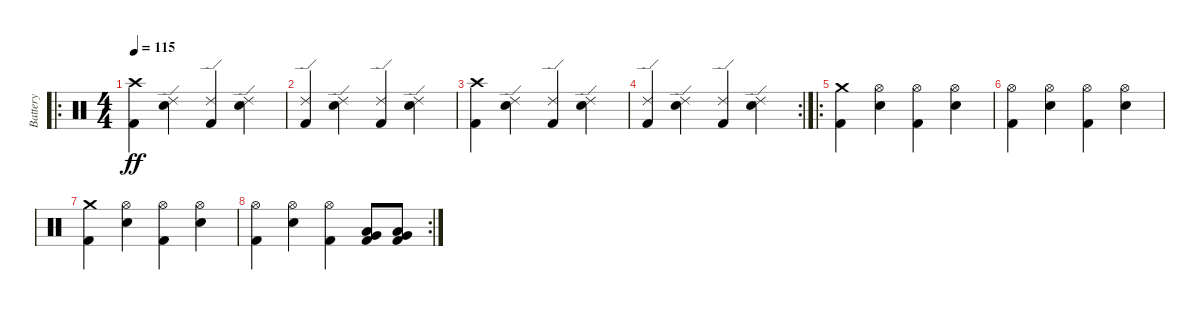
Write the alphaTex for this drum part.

\track ("Battery" "Battery") {instrument percussion}
\staff {score}
\articulation defaults
\ro
\ts (4 4)
\tempo 115
\clef neutral
\ks c
("Crash high (hit)" "Kick (hit) 2").4{dy ff} ("Ride (edge) 2" "Snare (hit) 2").4 ("Ride (edge) 2" "Kick (hit) 2").4 ("Ride (edge) 2" "Snare (hit) 2").4 |
("Ride (edge) 2" "Kick (hit) 2").4 ("Ride (edge) 2" "Snare (hit) 2").4 ("Ride (edge) 2" "Kick (hit) 2").4 ("Ride (edge) 2" "Snare (hit) 2").4 |
("Crash high (hit)" "Kick (hit) 2").4 ("Ride (edge) 2" "Snare (hit) 2").4 ("Ride (edge) 2" "Kick (hit) 2").4 ("Ride (edge) 2" "Snare (hit) 2").4 |
\rc 2
("Ride (edge) 2" "Kick (hit) 2").4 ("Ride (edge) 2" "Snare (hit) 2").4 ("Ride (edge) 2" "Kick (hit) 2").4 ("Ride (edge) 2" "Snare (hit) 2").4 |
\ro
("Crash medium (hit)" "Kick (hit) 2").4 ("Hi-Hat (open)" "Snare (hit) 2").4 ("Hi-Hat (open)" "Kick (hit) 2").4 ("Hi-Hat (open)" "Snare (hit) 2").4 |
("Hi-Hat (open)" "Kick (hit) 2").4 ("Hi-Hat (open)" "Snare (hit) 2").4 ("Hi-Hat (open)" "Kick (hit) 2").4 ("Hi-Hat (open)" "Snare (hit) 2").4 |
("Crash medium (hit)" "Kick (hit) 2").4 ("Hi-Hat (open)" "Snare (hit) 2").4 ("Hi-Hat (open)" "Kick (hit) 2").4 ("Hi-Hat (open)" "Snare (hit) 2").4 |
\rc 2
("Hi-Hat (open)" "Kick (hit) 2").4 ("Hi-Hat (open)" "Snare (hit) 2").4 ("Hi-Hat (open)" "Kick (hit) 2").4 ("Low Tom (hit)" "Very Low Tom (hit)" "Kick (hit) 2").8 ("Low Tom (hit)" "Very Low Tom (hit)" "Kick (hit) 2").8
